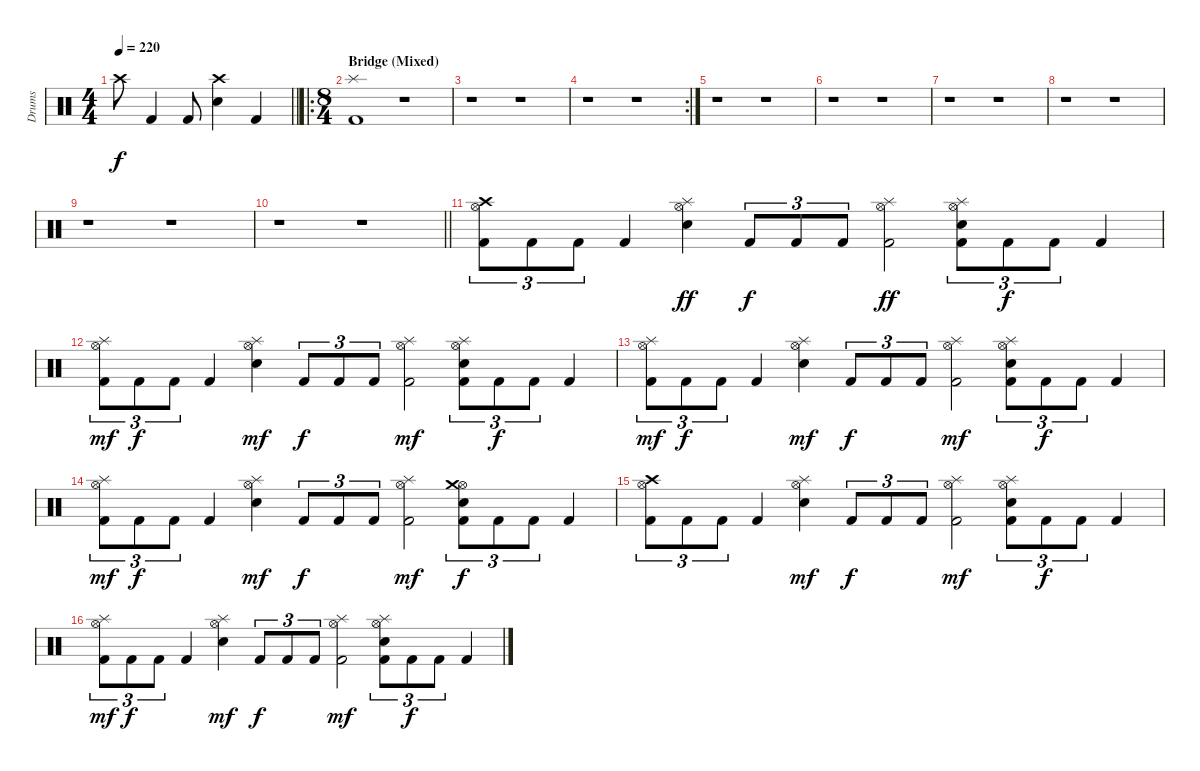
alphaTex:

\track ("Drums" "Drums") {instrument percussion}
\staff {score}
\articulation defaults
\ts (4 4)
\tempo 220
\clef neutral
\barLineRight lightlight
\ks c "Crash high (hit)".8{dy f} "Kick (hit) 2".4 "Kick (hit) 2".8
("Crash high (hit)" "Electric Snare (hit)").4 "Kick (hit) 2".4 |
\ro
\ts (8 4)
\section ("" "Bridge (Mixed)")
("Splash (hit)" "Kick (hit) 2").1 r.1 |
r.1 r.1 |
\rc 2
r.1 r.1 |
r.1 r.1 |
r.1 r.1 |
r.1 r.1 |
r.1 r.1 |
r.1 r.1 |
\barLineRight lightlight
r.1 r.1 |
("Crash high (hit)" "Hi-Hat (open)" "Kick (hit) 2").8{tu (3 2)} "Kick (hit) 2".8{tu (3 2)} "Kick (hit) 2".8{tu (3 2)} "Kick (hit) 2".4 ("Splash (hit)" "Hi-Hat (open)" "Electric Snare (hit)").4{dy ff} "Kick (hit) 2".8{tu (3 2) dy f} "Kick (hit) 2".8{tu (3 2)} "Kick (hit) 2".8{tu (3 2)} ("Splash (hit)" "Hi-Hat (open)" "Kick (hit) 2").2{dy ff} ("Splash (hit)" "Hi-Hat (open)" "Electric Snare (hit)" "Kick (hit) 2").8{tu (3 2)} "Kick (hit) 2".8{tu (3 2) dy f} "Kick (hit) 2".8{tu (3 2)} "Kick (hit) 2".4 |
("Hi-Hat (open)" "Splash (hit)" "Kick (hit) 2").8{tu (3 2) dy mf} "Kick (hit) 2".8{tu (3 2) dy f} "Kick (hit) 2".8{tu (3 2)} "Kick (hit) 2".4 ("Hi-Hat (open)" "Splash (hit)" "Electric Snare (hit)").4{dy mf} "Kick (hit) 2".8{tu (3 2) dy f} "Kick (hit) 2".8{tu (3 2)} "Kick (hit) 2".8{tu (3 2)} ("Hi-Hat (open)" "Splash (hit)" "Kick (hit) 2").2{dy mf} ("Hi-Hat (open)" "Splash (hit)" "Electric Snare (hit)" "Kick (hit) 2").8{tu (3 2)} "Kick (hit) 2".8{tu (3 2) dy f} "Kick (hit) 2".8{tu (3 2)} "Kick (hit) 2".4 |
("Hi-Hat (open)" "Splash (hit)" "Kick (hit) 2").8{tu (3 2) dy mf} "Kick (hit) 2".8{tu (3 2) dy f} "Kick (hit) 2".8{tu (3 2)} "Kick (hit) 2".4 ("Hi-Hat (open)" "Splash (hit)" "Electric Snare (hit)").4{dy mf} "Kick (hit) 2".8{tu (3 2) dy f} "Kick (hit) 2".8{tu (3 2)} "Kick (hit) 2".8{tu (3 2)} ("Hi-Hat (open)" "Splash (hit)" "Kick (hit) 2").2{dy mf} ("Hi-Hat (open)" "Splash (hit)" "Electric Snare (hit)" "Kick (hit) 2").8{tu (3 2)} "Kick (hit) 2".8{tu (3 2) dy f} "Kick (hit) 2".8{tu (3 2)} "Kick (hit) 2".4 |
("Hi-Hat (open)" "Splash (hit)" "Kick (hit) 2").8{tu (3 2) dy mf} "Kick (hit) 2".8{tu (3 2) dy f} "Kick (hit) 2".8{tu (3 2)} "Kick (hit) 2".4 ("Hi-Hat (open)" "Splash (hit)" "Electric Snare (hit)").4{dy mf} "Kick (hit) 2".8{tu (3 2) dy f} "Kick (hit) 2".8{tu (3 2)} "Kick (hit) 2".8{tu (3 2)} ("Hi-Hat (open)" "Splash (hit)" "Kick (hit) 2").2{dy mf} ("Hi-Hat (open)" "Crash medium (hit)" "Electric Snare (hit)" "Kick (hit) 2").8{tu (3 2) dy f} "Kick (hit) 2".8{tu (3 2)} "Kick (hit) 2".8{tu (3 2)} "Kick (hit) 2".4 |
("Hi-Hat (open)" "Crash high (hit)" "Kick (hit) 2").8{tu (3 2)} "Kick (hit) 2".8{tu (3 2)} "Kick (hit) 2".8{tu (3 2)} "Kick (hit) 2".4 ("Hi-Hat (open)" "Splash (hit)" "Electric Snare (hit)").4{dy mf} "Kick (hit) 2".8{tu (3 2) dy f} "Kick (hit) 2".8{tu (3 2)} "Kick (hit) 2".8{tu (3 2)} ("Hi-Hat (open)" "Splash (hit)" "Kick (hit) 2").2{dy mf} ("Hi-Hat (open)" "Splash (hit)" "Electric Snare (hit)" "Kick (hit) 2").8{tu (3 2)} "Kick (hit) 2".8{tu (3 2) dy f} "Kick (hit) 2".8{tu (3 2)} "Kick (hit) 2".4 |
("Hi-Hat (open)" "Splash (hit)" "Kick (hit) 2").8{tu (3 2) dy mf} "Kick (hit) 2".8{tu (3 2) dy f} "Kick (hit) 2".8{tu (3 2)} "Kick (hit) 2".4 ("Hi-Hat (open)" "Splash (hit)" "Electric Snare (hit)").4{dy mf} "Kick (hit) 2".8{tu (3 2) dy f} "Kick (hit) 2".8{tu (3 2)} "Kick (hit) 2".8{tu (3 2)} ("Hi-Hat (open)" "Splash (hit)" "Kick (hit) 2").2{dy mf} ("Hi-Hat (open)" "Splash (hit)" "Electric Snare (hit)" "Kick (hit) 2").8{tu (3 2)} "Kick (hit) 2".8{tu (3 2) dy f} "Kick (hit) 2".8{tu (3 2)} "Kick (hit) 2".4
